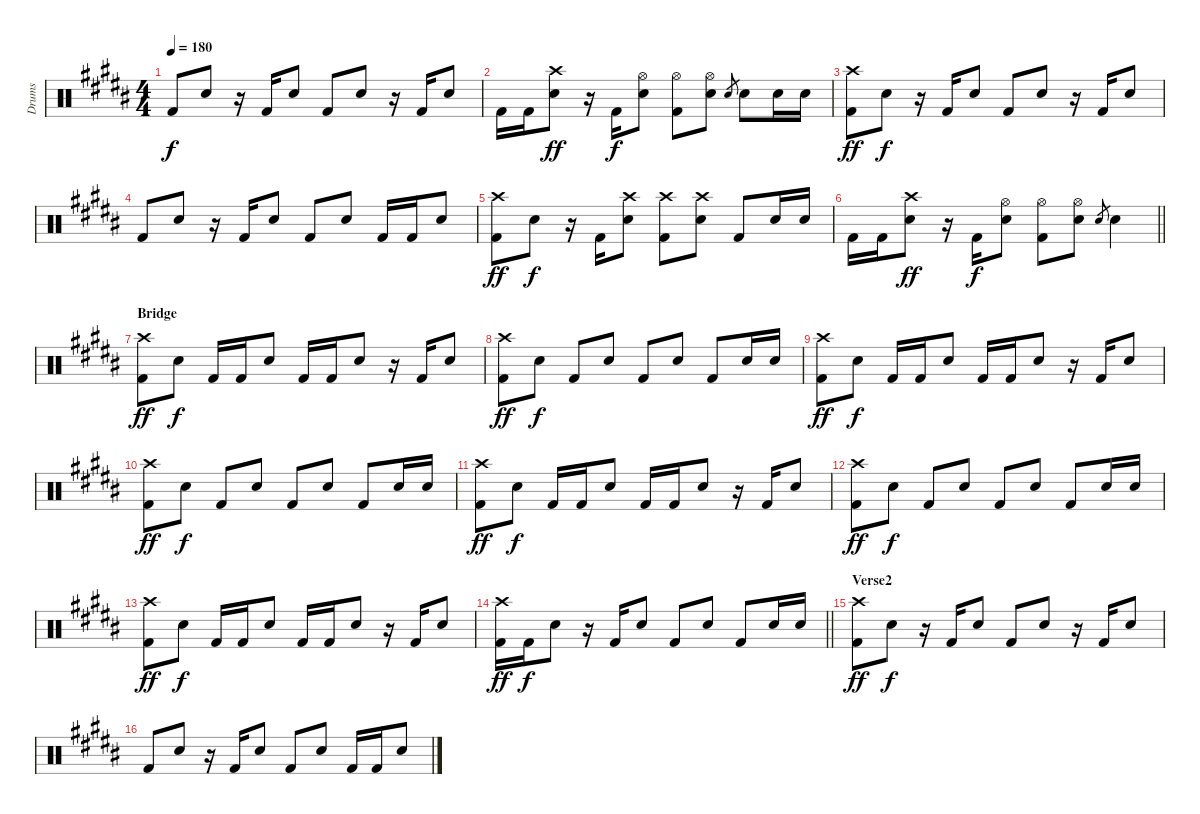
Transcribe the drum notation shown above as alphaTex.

\track ("Drums" "Drums") {instrument percussion}
\staff {score}
\articulation defaults
\ts (4 4)
\tempo 180
\clef neutral
\ks g#minor "Kick (hit) 2".8{dy f} "Snare (hit) 2".8
r.16 "Kick (hit) 2".16 "Snare (hit) 2".8 "Kick (hit) 2".8 "Snare (hit) 2".8 r.16 "Kick (hit) 2".16 "Snare (hit) 2".8 |
"Kick (hit) 2".16 "Kick (hit) 2".16 ("Snare (hit) 2" "Crash high (hit)").8{dy ff} r.16 "Kick (hit) 2".16{dy f} ("Snare (hit) 2" "Hi-Hat (open)").8 ("Kick (hit) 2" "Hi-Hat (open)").8 ("Snare (hit) 2" "Hi-Hat (open)").8 "Snare (hit) 2".8{gr} "Snare (hit) 2".8 "Snare (hit) 2".16 "Snare (hit) 2".16 |
("Kick (hit) 2" "Crash high (hit)").8{dy ff} "Snare (hit) 2".8{dy f} r.16 "Kick (hit) 2".16 "Snare (hit) 2".8 "Kick (hit) 2".8 "Snare (hit) 2".8 r.16 "Kick (hit) 2".16 "Snare (hit) 2".8 |
"Kick (hit) 2".8 "Snare (hit) 2".8 r.16 "Kick (hit) 2".16 "Snare (hit) 2".8 "Kick (hit) 2".8 "Snare (hit) 2".8 "Kick (hit) 2".16 "Kick (hit) 2".16 "Snare (hit) 2".8 |
("Kick (hit) 2" "Crash high (hit)").8{dy ff} "Snare (hit) 2".8{dy f} r.16 "Kick (hit) 2".16 ("Snare (hit) 2" "Crash high (hit)").8 ("Kick (hit) 2" "Crash high (hit)").8 ("Snare (hit) 2" "Crash high (hit)").8 "Kick (hit) 2".8 "Snare (hit) 2".16 "Snare (hit) 2".16 |
\barLineRight lightlight "Kick (hit) 2".16 "Kick (hit) 2".16
("Snare (hit) 2" "Crash high (hit)").8{dy ff} r.16 "Kick (hit) 2".16{dy f} ("Snare (hit) 2" "Hi-Hat (open)").8 ("Kick (hit) 2" "Hi-Hat (open)").8 ("Snare (hit) 2" "Hi-Hat (open)").8 "Snare (hit) 2".8{gr} "Snare (hit) 2".4 |
\section ("" "Bridge")
("Kick (hit) 2" "Crash high (hit)").8{dy ff} "Snare (hit) 2".8{dy f} "Kick (hit) 2".16 "Kick (hit) 2".16 "Snare (hit) 2".8 "Kick (hit) 2".16 "Kick (hit) 2".16 "Snare (hit) 2".8 r.16 "Kick (hit) 2".16 "Snare (hit) 2".8 |
("Kick (hit) 2" "Crash high (hit)").8{dy ff} "Snare (hit) 2".8{dy f} "Kick (hit) 2".8 "Snare (hit) 2".8 "Kick (hit) 2".8 "Snare (hit) 2".8 "Kick (hit) 2".8 "Snare (hit) 2".16 "Snare (hit) 2".16 |
("Kick (hit) 2" "Crash high (hit)").8{dy ff} "Snare (hit) 2".8{dy f} "Kick (hit) 2".16 "Kick (hit) 2".16 "Snare (hit) 2".8 "Kick (hit) 2".16 "Kick (hit) 2".16 "Snare (hit) 2".8 r.16 "Kick (hit) 2".16 "Snare (hit) 2".8 |
("Kick (hit) 2" "Crash high (hit)").8{dy ff} "Snare (hit) 2".8{dy f} "Kick (hit) 2".8 "Snare (hit) 2".8 "Kick (hit) 2".8 "Snare (hit) 2".8 "Kick (hit) 2".8 "Snare (hit) 2".16 "Snare (hit) 2".16 |
("Kick (hit) 2" "Crash high (hit)").8{dy ff} "Snare (hit) 2".8{dy f} "Kick (hit) 2".16 "Kick (hit) 2".16 "Snare (hit) 2".8 "Kick (hit) 2".16 "Kick (hit) 2".16 "Snare (hit) 2".8 r.16 "Kick (hit) 2".16 "Snare (hit) 2".8 |
("Kick (hit) 2" "Crash high (hit)").8{dy ff} "Snare (hit) 2".8{dy f} "Kick (hit) 2".8 "Snare (hit) 2".8 "Kick (hit) 2".8 "Snare (hit) 2".8 "Kick (hit) 2".8 "Snare (hit) 2".16 "Snare (hit) 2".16 |
("Kick (hit) 2" "Crash high (hit)").8{dy ff} "Snare (hit) 2".8{dy f} "Kick (hit) 2".16 "Kick (hit) 2".16 "Snare (hit) 2".8 "Kick (hit) 2".16 "Kick (hit) 2".16 "Snare (hit) 2".8 r.16 "Kick (hit) 2".16 "Snare (hit) 2".8 |
\barLineRight lightlight
("Kick (hit) 2" "Crash high (hit)").16{dy ff} "Kick (hit) 2".16{dy f} "Snare (hit) 2".8 r.16 "Kick (hit) 2".16 "Snare (hit) 2".8 "Kick (hit) 2".8 "Snare (hit) 2".8 "Kick (hit) 2".8 "Snare (hit) 2".16 "Snare (hit) 2".16 |
\section ("" "Verse2")
("Kick (hit) 2" "Crash high (hit)").8{dy ff} "Snare (hit) 2".8{dy f} r.16 "Kick (hit) 2".16 "Snare (hit) 2".8 "Kick (hit) 2".8 "Snare (hit) 2".8 r.16 "Kick (hit) 2".16 "Snare (hit) 2".8 |
"Kick (hit) 2".8 "Snare (hit) 2".8 r.16 "Kick (hit) 2".16 "Snare (hit) 2".8 "Kick (hit) 2".8 "Snare (hit) 2".8 "Kick (hit) 2".16 "Kick (hit) 2".16 "Snare (hit) 2".8
